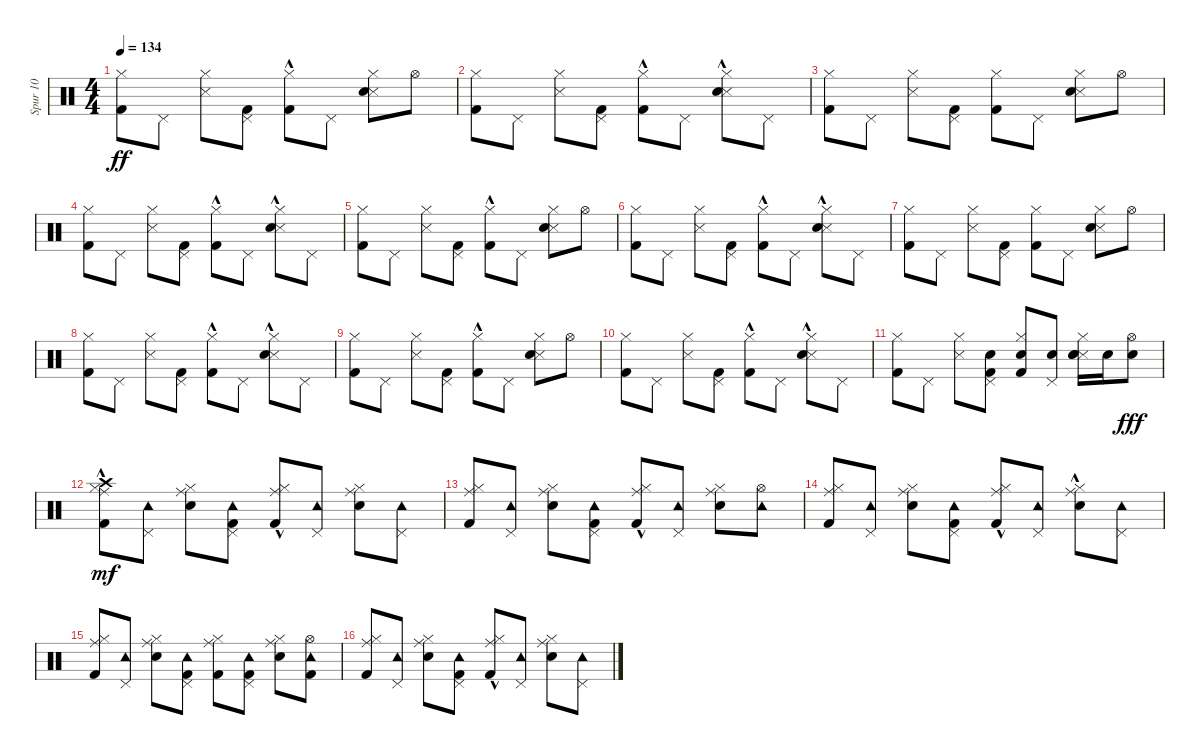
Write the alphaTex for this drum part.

\track ("Spur 10" "Spur 10") {instrument percussion}
\staff {score}
\articulation defaults
\ts (4 4)
\tempo 134
\clef neutral
\ks c
("Kick (hit) 2" "Hi-Hat (closed)").8{dy ff} "Pedal Hi-Hat (hit)".8 ("Snare (side stick) 3" "Hi-Hat (closed)").8 ("Kick (hit) 2" "Pedal Hi-Hat (hit)").8 ("Kick (hit) 2"{hac} "Hi-Hat (closed)").8 "Pedal Hi-Hat (hit)".8 ("Snare (side stick) 3" "Snare (hit) 2" "Hi-Hat (closed)").8 "Hi-Hat (open)".8 |
("Kick (hit) 2" "Hi-Hat (closed)").8 "Pedal Hi-Hat (hit)".8 ("Snare (side stick) 3" "Hi-Hat (closed)").8 ("Kick (hit) 2" "Pedal Hi-Hat (hit)").8 ("Kick (hit) 2"{hac} "Hi-Hat (closed)").8 "Pedal Hi-Hat (hit)".8 ("Snare (side stick) 3" "Snare (hit) 2" "Hi-Hat (closed)"{hac}).8 "Pedal Hi-Hat (hit)".8 |
("Kick (hit) 2" "Hi-Hat (closed)").8 "Pedal Hi-Hat (hit)".8 ("Snare (side stick) 3" "Hi-Hat (closed)").8 ("Kick (hit) 2" "Pedal Hi-Hat (hit)").8 ("Kick (hit) 2" "Hi-Hat (closed)").8 "Pedal Hi-Hat (hit)".8 ("Snare (side stick) 3" "Snare (hit) 2" "Hi-Hat (closed)").8 "Hi-Hat (open)".8 |
("Kick (hit) 2" "Hi-Hat (closed)").8 "Pedal Hi-Hat (hit)".8 ("Snare (side stick) 3" "Hi-Hat (closed)").8 ("Kick (hit) 2" "Pedal Hi-Hat (hit)").8 ("Kick (hit) 2"{hac} "Hi-Hat (closed)").8 "Pedal Hi-Hat (hit)".8 ("Snare (side stick) 3" "Snare (hit) 2"{hac} "Hi-Hat (closed)").8 "Pedal Hi-Hat (hit)".8 |
("Kick (hit) 2" "Hi-Hat (closed)").8 "Pedal Hi-Hat (hit)".8 ("Snare (side stick) 3" "Hi-Hat (closed)").8 ("Kick (hit) 2" "Pedal Hi-Hat (hit)").8 ("Kick (hit) 2"{hac} "Hi-Hat (closed)").8 "Pedal Hi-Hat (hit)".8 ("Snare (side stick) 3" "Snare (hit) 2" "Hi-Hat (closed)").8 "Hi-Hat (open)".8 |
("Kick (hit) 2" "Hi-Hat (closed)").8 "Pedal Hi-Hat (hit)".8 ("Snare (side stick) 3" "Hi-Hat (closed)").8 ("Kick (hit) 2" "Pedal Hi-Hat (hit)").8 ("Kick (hit) 2"{hac} "Hi-Hat (closed)").8 "Pedal Hi-Hat (hit)".8 ("Snare (side stick) 3" "Snare (hit) 2"{hac} "Hi-Hat (closed)"{hac}).8 "Pedal Hi-Hat (hit)".8 |
("Kick (hit) 2" "Hi-Hat (closed)").8 "Pedal Hi-Hat (hit)".8 ("Snare (side stick) 3" "Hi-Hat (closed)").8 ("Kick (hit) 2" "Pedal Hi-Hat (hit)").8 ("Kick (hit) 2" "Hi-Hat (closed)").8 "Pedal Hi-Hat (hit)".8 ("Snare (side stick) 3" "Snare (hit) 2" "Hi-Hat (closed)").8 "Hi-Hat (open)".8 |
("Kick (hit) 2" "Hi-Hat (closed)").8 "Pedal Hi-Hat (hit)".8 ("Snare (side stick) 3" "Hi-Hat (closed)").8 ("Kick (hit) 2" "Pedal Hi-Hat (hit)").8 ("Kick (hit) 2"{hac} "Hi-Hat (closed)").8 "Pedal Hi-Hat (hit)".8 ("Snare (side stick) 3" "Snare (hit) 2"{hac} "Hi-Hat (closed)").8 "Pedal Hi-Hat (hit)".8 |
("Kick (hit) 2" "Hi-Hat (closed)").8 "Pedal Hi-Hat (hit)".8 ("Snare (side stick) 3" "Hi-Hat (closed)").8 ("Kick (hit) 2" "Pedal Hi-Hat (hit)").8 ("Kick (hit) 2"{hac} "Hi-Hat (closed)").8 "Pedal Hi-Hat (hit)".8 ("Snare (side stick) 3" "Snare (hit) 2" "Hi-Hat (closed)").8 "Hi-Hat (open)".8 |
("Kick (hit) 2" "Hi-Hat (closed)").8 "Pedal Hi-Hat (hit)".8 ("Snare (side stick) 3" "Hi-Hat (closed)").8 ("Kick (hit) 2" "Pedal Hi-Hat (hit)").8 ("Kick (hit) 2"{hac} "Hi-Hat (closed)").8 "Pedal Hi-Hat (hit)".8 ("Snare (side stick) 3" "Snare (hit) 2"{hac} "Hi-Hat (closed)"{hac}).8 "Pedal Hi-Hat (hit)".8 |
("Kick (hit) 2" "Hi-Hat (closed)").8 "Pedal Hi-Hat (hit)".8 ("Snare (side stick) 3" "Hi-Hat (closed)").8 ("Kick (hit) 2" "Pedal Hi-Hat (hit)" "Snare (hit) 2").8 ("Kick (hit) 2" "Hi-Hat (closed)" "Snare (hit) 2").8 ("Pedal Hi-Hat (hit)" "Snare (hit) 2").8 ("Snare (side stick) 3" "Snare (hit) 2" "Hi-Hat (closed)" "Snare (hit) 2").16 "Snare (hit) 2".16 ("Hi-Hat (open)" "Snare (hit) 2").8{dy fff} |
("Kick (hit) 2" "Hi-Hat (closed)" "Ride (middle)" "Crash high (hit)"{hac}).8{dy mf} ("Pedal Hi-Hat (hit)" "Tambourine (hit)").8 ("Electric Snare (hit)" "Hi-Hat (closed)" "Ride (middle)").8 ("Kick (hit) 2" "Pedal Hi-Hat (hit)" "Tambourine (hit)").8 ("Kick (hit) 2"{hac} "Hi-Hat (closed)" "Ride (middle)").8 ("Pedal Hi-Hat (hit)" "Tambourine (hit)").8 ("Electric Snare (hit)" "Hi-Hat (closed)" "Ride (middle)").8 ("Pedal Hi-Hat (hit)" "Tambourine (hit)").8 |
("Kick (hit) 2" "Hi-Hat (closed)" "Ride (middle)").8 ("Pedal Hi-Hat (hit)" "Tambourine (hit)").8 ("Electric Snare (hit)" "Hi-Hat (closed)" "Ride (middle)").8 ("Kick (hit) 2" "Pedal Hi-Hat (hit)" "Tambourine (hit)").8 ("Kick (hit) 2"{hac} "Hi-Hat (closed)" "Ride (middle)").8 ("Pedal Hi-Hat (hit)" "Tambourine (hit)").8 ("Electric Snare (hit)" "Hi-Hat (closed)" "Ride (middle)").8 ("Hi-Hat (open)" "Tambourine (hit)").8 |
("Kick (hit) 2" "Hi-Hat (closed)" "Ride (middle)").8 ("Pedal Hi-Hat (hit)" "Tambourine (hit)").8 ("Electric Snare (hit)" "Hi-Hat (closed)" "Ride (middle)").8 ("Kick (hit) 2" "Pedal Hi-Hat (hit)" "Tambourine (hit)").8 ("Kick (hit) 2"{hac} "Hi-Hat (closed)" "Ride (middle)").8 ("Pedal Hi-Hat (hit)" "Tambourine (hit)").8 ("Electric Snare (hit)" "Hi-Hat (closed)"{hac} "Ride (middle)").8 ("Pedal Hi-Hat (hit)" "Tambourine (hit)").8 |
("Kick (hit) 2" "Hi-Hat (closed)" "Ride (middle)").8 ("Pedal Hi-Hat (hit)" "Tambourine (hit)").8 ("Electric Snare (hit)" "Hi-Hat (closed)" "Ride (middle)").8 ("Kick (hit) 2" "Pedal Hi-Hat (hit)" "Tambourine (hit)").8 ("Kick (hit) 2" "Hi-Hat (closed)" "Ride (middle)").8 ("Kick (hit) 2" "Pedal Hi-Hat (hit)" "Tambourine (hit)").8 ("Electric Snare (hit)" "Hi-Hat (closed)" "Ride (middle)").8 ("Kick (hit) 2" "Hi-Hat (open)" "Tambourine (hit)").8 |
("Kick (hit) 2" "Hi-Hat (closed)" "Ride (middle)").8 ("Pedal Hi-Hat (hit)" "Tambourine (hit)").8 ("Electric Snare (hit)" "Hi-Hat (closed)" "Ride (middle)").8 ("Kick (hit) 2" "Pedal Hi-Hat (hit)" "Tambourine (hit)").8 ("Kick (hit) 2"{hac} "Hi-Hat (closed)" "Ride (middle)").8 ("Pedal Hi-Hat (hit)" "Tambourine (hit)").8 ("Electric Snare (hit)" "Hi-Hat (closed)" "Ride (middle)").8 ("Pedal Hi-Hat (hit)" "Tambourine (hit)").8
